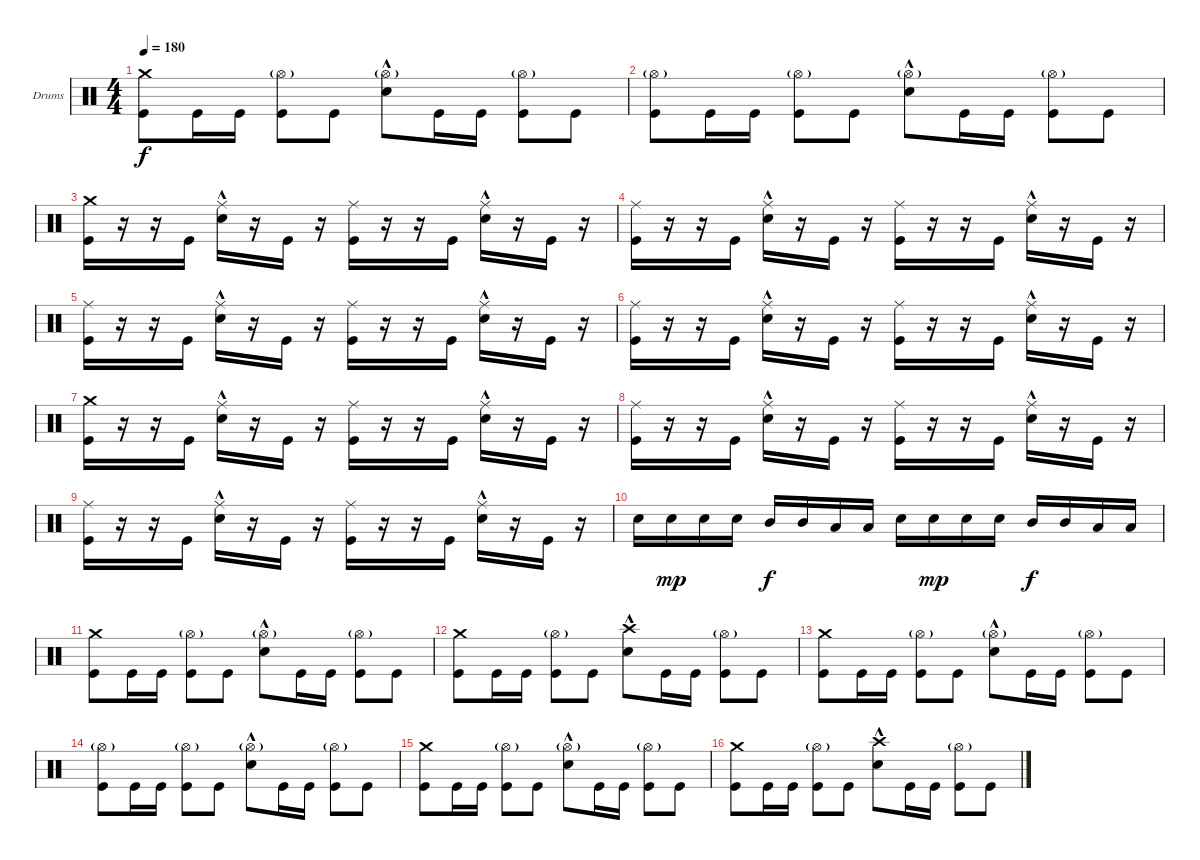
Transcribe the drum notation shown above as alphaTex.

\bracketExtendMode groupsimilarinstruments
\firstSystemTrackNameOrientation horizontal
\otherSystemsTrackNameOrientation horizontal
\track ("Drumkit" "Drums") {instrument percussion}
\staff {score}
\articulation defaults
\ts (4 4)
\tempo 180
\clef neutral
\scale
0.333333
\ks c
("Kick (hit)" "Crash medium (hit)").8{dy f} "Kick (hit)".16 "Kick (hit)".16 ("Kick (hit)" "Hi-Hat (open)"{g}).8 "Kick (hit)".8 ("Hi-Hat (open)"{g} "Snare (hit) 2"{hac}).8 "Kick (hit)".16 "Kick (hit)".16 ("Hi-Hat (open)"{g} "Kick (hit)").8 "Kick (hit)".8 |
\scale
0.333333 ("Kick (hit)" "Hi-Hat (open)"{g}).8 "Kick (hit)".16 "Kick (hit)".16 ("Kick (hit)" "Hi-Hat (open)"{g}).8 "Kick (hit)".8 ("Hi-Hat (open)"{g} "Snare (hit) 2"{hac}).8 "Kick (hit)".16 "Kick (hit)".16 ("Hi-Hat (open)"{g} "Kick (hit)").8 "Kick (hit)".8 |
\scale
0.333333 ("Kick (hit)" "Crash medium (hit)").16 r.16 r.16 "Kick (hit)".16 ("Snare (hit) 2"{hac} "Ride (middle)").16 r.16 "Kick (hit)".16 r.16 ("Kick (hit)" "Ride (middle)").16 r.16 r.16 "Kick (hit)".16 ("Snare (hit) 2"{hac} "Ride (middle)").16 r.16 "Kick (hit)".16 r.16 |
\scale
0.333333 ("Kick (hit)" "Ride (middle)").16 r.16 r.16 "Kick (hit)".16 ("Snare (hit) 2"{hac} "Ride (middle)").16 r.16 "Kick (hit)".16 r.16 ("Kick (hit)" "Ride (middle)").16 r.16 r.16 "Kick (hit)".16 ("Snare (hit) 2"{hac} "Ride (middle)").16 r.16 "Kick (hit)".16 r.16 |
\scale
0.333333 ("Kick (hit)" "Ride (middle)").16 r.16 r.16 "Kick (hit)".16 ("Snare (hit) 2"{hac} "Ride (middle)").16 r.16 "Kick (hit)".16 r.16 ("Kick (hit)" "Ride (middle)").16 r.16 r.16 "Kick (hit)".16 ("Snare (hit) 2"{hac} "Ride (middle)").16 r.16 "Kick (hit)".16 r.16 |
\scale
0.333333 ("Kick (hit)" "Ride (middle)").16 r.16 r.16 "Kick (hit)".16 ("Snare (hit) 2"{hac} "Ride (middle)").16 r.16 "Kick (hit)".16 r.16 ("Kick (hit)" "Ride (middle)").16 r.16 r.16 "Kick (hit)".16 ("Snare (hit) 2"{hac} "Ride (middle)").16 r.16 "Kick (hit)".16 r.16 |
\scale
0.333333 ("Kick (hit)" "Crash medium (hit)").16 r.16 r.16 "Kick (hit)".16 ("Snare (hit) 2"{hac} "Ride (middle)").16 r.16 "Kick (hit)".16 r.16 ("Kick (hit)" "Ride (middle)").16 r.16 r.16 "Kick (hit)".16 ("Snare (hit) 2"{hac} "Ride (middle)").16 r.16 "Kick (hit)".16 r.16 |
\scale
0.333333 ("Kick (hit)" "Ride (middle)").16 r.16 r.16 "Kick (hit)".16 ("Snare (hit) 2"{hac} "Ride (middle)").16 r.16 "Kick (hit)".16 r.16 ("Kick (hit)" "Ride (middle)").16 r.16 r.16 "Kick (hit)".16 ("Snare (hit) 2"{hac} "Ride (middle)").16 r.16 "Kick (hit)".16 r.16 |
\scale
0.333333 ("Kick (hit)" "Ride (middle)").16 r.16 r.16 "Kick (hit)".16 ("Snare (hit) 2"{hac} "Ride (middle)").16 r.16 "Kick (hit)".16 r.16 ("Kick (hit)" "Ride (middle)").16 r.16 r.16 "Kick (hit)".16 ("Snare (hit) 2"{hac} "Ride (middle)").16 r.16 "Kick (hit)".16 r.16 |
\scale
0.333333 "Snare (hit) 2".16 "Snare (hit) 2".16{dy mp} "Snare (hit) 2".16 "Snare (hit) 2".16 "Mid Tom (hit)".16{dy f} "Mid Tom (hit)".16 "Low Tom (hit)".16 "Low Tom (hit)".16 "Snare (hit) 2".16 "Snare (hit) 2".16{dy mp} "Snare (hit) 2".16 "Snare (hit) 2".16 "Mid Tom (hit)".16{dy f} "Mid Tom (hit)".16 "Low Tom (hit)".16 "Low Tom (hit)".16 |
\scale
0.333333 ("Kick (hit)" "Crash medium (hit)").8 "Kick (hit)".16 "Kick (hit)".16 ("Kick (hit)" "Hi-Hat (open)"{g}).8 "Kick (hit)".8 ("Hi-Hat (open)"{g} "Snare (hit) 2"{hac}).8 "Kick (hit)".16 "Kick (hit)".16 ("Hi-Hat (open)"{g} "Kick (hit)").8 "Kick (hit)".8 |
\scale
0.333333 ("Kick (hit)" "Crash medium (hit)").8 "Kick (hit)".16 "Kick (hit)".16 ("Kick (hit)" "Hi-Hat (open)"{g}).8 "Kick (hit)".8 ("Snare (hit) 2"{hac} "Crash high (hit)").8 "Kick (hit)".16 "Kick (hit)".16 ("Hi-Hat (open)"{g} "Kick (hit)").8 "Kick (hit)".8 |
\scale
0.333333 ("Kick (hit)" "Crash medium (hit)").8 "Kick (hit)".16 "Kick (hit)".16 ("Kick (hit)" "Hi-Hat (open)"{g}).8 "Kick (hit)".8 ("Hi-Hat (open)"{g} "Snare (hit) 2"{hac}).8 "Kick (hit)".16 "Kick (hit)".16 ("Hi-Hat (open)"{g} "Kick (hit)").8 "Kick (hit)".8 |
\scale
0.333333 ("Kick (hit)" "Hi-Hat (open)"{g}).8 "Kick (hit)".16 "Kick (hit)".16 ("Kick (hit)" "Hi-Hat (open)"{g}).8 "Kick (hit)".8 ("Hi-Hat (open)"{g} "Snare (hit) 2"{hac}).8 "Kick (hit)".16 "Kick (hit)".16 ("Hi-Hat (open)"{g} "Kick (hit)").8 "Kick (hit)".8 |
\scale
0.333333 ("Kick (hit)" "Crash medium (hit)").8 "Kick (hit)".16 "Kick (hit)".16 ("Kick (hit)" "Hi-Hat (open)"{g}).8 "Kick (hit)".8 ("Hi-Hat (open)"{g} "Snare (hit) 2"{hac}).8 "Kick (hit)".16 "Kick (hit)".16 ("Hi-Hat (open)"{g} "Kick (hit)").8 "Kick (hit)".8 |
\scale
0.333333 ("Kick (hit)" "Crash medium (hit)").8 "Kick (hit)".16 "Kick (hit)".16 ("Kick (hit)" "Hi-Hat (open)"{g}).8 "Kick (hit)".8 ("Snare (hit) 2"{hac} "Crash high (hit)").8 "Kick (hit)".16 "Kick (hit)".16 ("Hi-Hat (open)"{g} "Kick (hit)").8 "Kick (hit)".8
